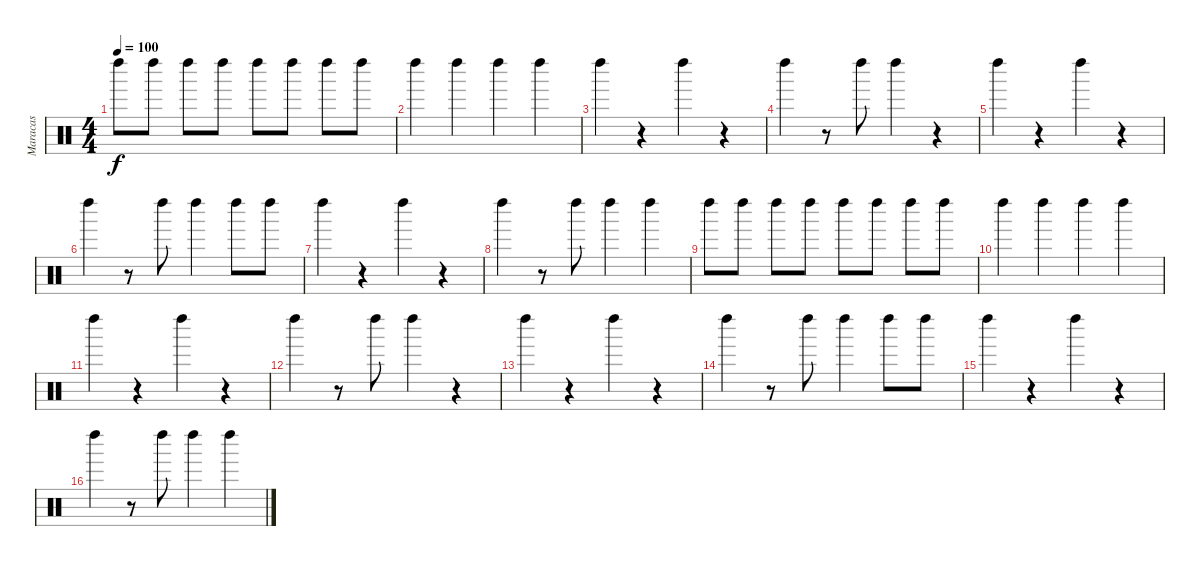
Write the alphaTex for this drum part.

\track ("Maracas" "Maracas") {instrument percussion}
\staff {score}
\articulation defaults
\ts (4 4)
\tempo 100
\clef neutral
\ks c "Left Maraca (hit)".8{dy f} "Left Maraca (hit)".8 "Left Maraca (hit)".8 "Left Maraca (hit)".8 "Left Maraca (hit)".8 "Left Maraca (hit)".8 "Left Maraca (hit)".8 "Left Maraca (hit)".8
|
"Left Maraca (hit)".4 "Left Maraca (hit)".4 "Left Maraca (hit)".4 "Left Maraca (hit)".4 |
"Left Maraca (hit)".4 r.4 "Left Maraca (hit)".4 r.4 |
"Left Maraca (hit)".4 r.8 "Left Maraca (hit)".8 "Left Maraca (hit)".4 r.4 |
"Left Maraca (hit)".4 r.4 "Left Maraca (hit)".4 r.4 |
"Left Maraca (hit)".4 r.8 "Left Maraca (hit)".8 "Left Maraca (hit)".4 "Left Maraca (hit)".8 "Left Maraca (hit)".8 |
"Left Maraca (hit)".4 r.4 "Left Maraca (hit)".4 r.4 |
"Left Maraca (hit)".4 r.8 "Left Maraca (hit)".8 "Left Maraca (hit)".4 "Left Maraca (hit)".4 |
"Left Maraca (hit)".8 "Left Maraca (hit)".8 "Left Maraca (hit)".8 "Left Maraca (hit)".8 "Left Maraca (hit)".8 "Left Maraca (hit)".8 "Left Maraca (hit)".8 "Left Maraca (hit)".8 |
"Left Maraca (hit)".4 "Left Maraca (hit)".4 "Left Maraca (hit)".4 "Left Maraca (hit)".4 |
"Left Maraca (hit)".4 r.4 "Left Maraca (hit)".4 r.4 |
"Left Maraca (hit)".4 r.8 "Left Maraca (hit)".8 "Left Maraca (hit)".4 r.4 |
"Left Maraca (hit)".4 r.4 "Left Maraca (hit)".4 r.4 |
"Left Maraca (hit)".4 r.8 "Left Maraca (hit)".8 "Left Maraca (hit)".4 "Left Maraca (hit)".8 "Left Maraca (hit)".8 |
"Left Maraca (hit)".4 r.4 "Left Maraca (hit)".4 r.4 |
"Left Maraca (hit)".4 r.8 "Left Maraca (hit)".8 "Left Maraca (hit)".4 "Left Maraca (hit)".4
